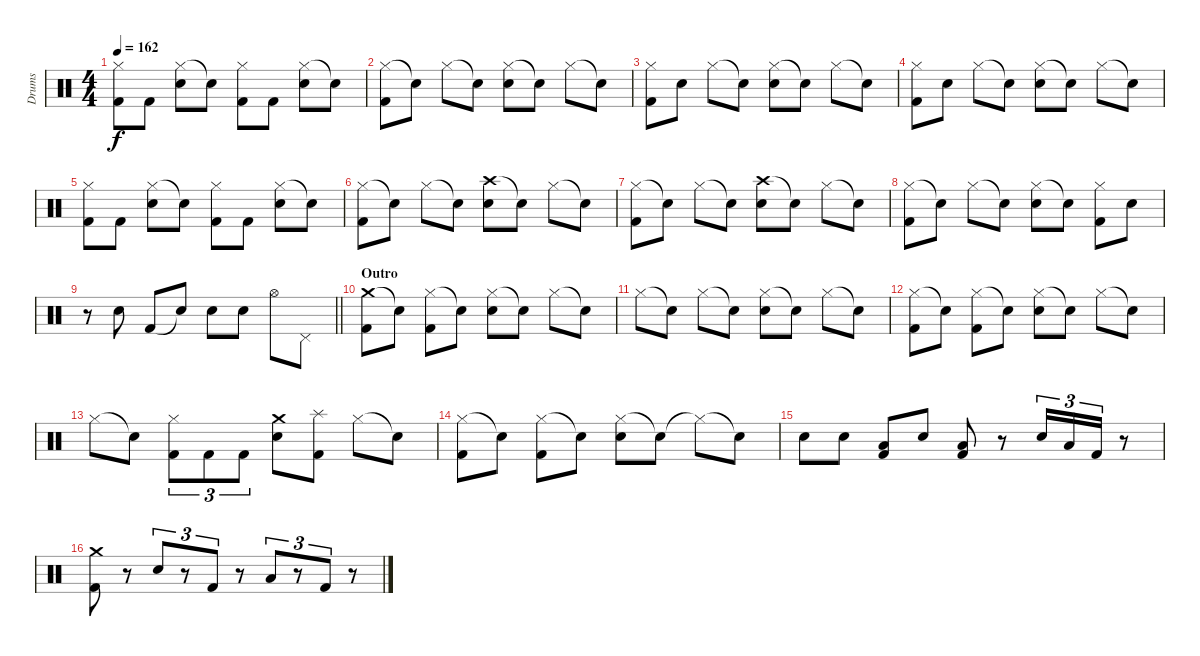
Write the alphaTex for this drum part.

\track ("Drums" "Drums") {instrument percussion}
\staff {score}
\articulation defaults
\ts (4 4)
\tempo 162
\clef neutral
\ks c
("Hi-Hat (closed)" "Kick (hit) 2").8{dy f} "Kick (hit) 2".8 ("Hi-Hat (closed)" "Snare (hit) 2").8 "Snare (hit)"{t}.8 ("Hi-Hat (closed)" "Kick (hit) 2").8 "Kick (hit) 2".8 ("Hi-Hat (closed)" "Snare (hit) 2").8 "Snare (hit)"{t}.8 |
("Hi-Hat (closed)" "Kick (hit) 2").8 "Snare (hit)"{t}.8 "Hi-Hat (closed)".8 "Snare (hit)"{t}.8 ("Hi-Hat (closed)" "Snare (hit) 2").8 "Snare (hit)"{t}.8 "Hi-Hat (closed)".8 "Snare (hit)"{t}.8 |
("Hi-Hat (closed)" "Kick (hit) 2").8 "Snare (hit) 2".8 "Hi-Hat (closed)".8 "Snare (hit)"{t}.8 ("Hi-Hat (closed)" "Snare (hit) 2").8 "Snare (hit)"{t}.8 "Hi-Hat (closed)".8 "Snare (hit)"{t}.8 |
("Hi-Hat (closed)" "Kick (hit) 2").8 "Snare (hit) 2".8 "Hi-Hat (closed)".8 "Snare (hit)"{t}.8 ("Hi-Hat (closed)" "Snare (hit) 2").8 "Snare (hit)"{t}.8 "Hi-Hat (closed)".8 "Snare (hit)"{t}.8 |
("Hi-Hat (closed)" "Kick (hit) 2").8 "Kick (hit) 2".8 ("Hi-Hat (closed)" "Snare (hit) 2").8 "Snare (hit)"{t}.8 ("Hi-Hat (closed)" "Kick (hit) 2").8 "Kick (hit) 2".8 ("Hi-Hat (closed)" "Snare (hit) 2").8 "Snare (hit)"{t}.8 |
("Hi-Hat (closed)" "Kick (hit) 2").8 "Snare (hit)"{t}.8 "Hi-Hat (closed)".8 "Snare (hit)"{t}.8 ("Crash high (hit)" "Snare (hit) 2").8 "Snare (hit)"{t}.8 "Hi-Hat (closed)".8 "Snare (hit)"{t}.8 |
("Hi-Hat (closed)" "Kick (hit) 2").8 "Snare (hit)"{t}.8 "Hi-Hat (closed)".8 "Snare (hit)"{t}.8 ("Crash high (hit)" "Snare (hit) 2").8 "Snare (hit)"{t}.8 "Hi-Hat (closed)".8 "Snare (hit)"{t}.8 |
("Hi-Hat (closed)" "Kick (hit) 2").8 "Snare (hit)"{t}.8 "Hi-Hat (closed)".8 "Snare (hit)"{t}.8 ("Hi-Hat (closed)" "Snare (hit) 2").8 "Snare (hit)"{t}.8 ("Hi-Hat (closed)" "Kick (hit) 2").8 "Snare (hit) 2".8 |
\barLineRight lightlight
r.8 "Snare (hit) 2".8 "Kick (hit) 2".8 "Snare (hit)"{t}.8 "Snare (hit) 2".8 "Snare (hit) 2".8 "Hi-Hat (open)".8 "Pedal Hi-Hat (hit)".8 |
\section ("" "Outro")
("Crash medium (hit)" "Kick (hit) 2").8 "Snare (hit)"{t}.8 ("Hi-Hat (closed)" "Kick (hit) 2").8 "Snare (hit)"{t}.8 ("Hi-Hat (closed)" "Snare (hit) 2").8 "Snare (hit)"{t}.8 "Hi-Hat (closed)".8 "Snare (hit)"{t}.8 |
"Hi-Hat (closed)".8 "Snare (hit)"{t}.8 "Hi-Hat (closed)".8 "Snare (hit)"{t}.8 ("Hi-Hat (closed)" "Snare (hit) 2").8 "Snare (hit)"{t}.8 "Hi-Hat (closed)".8 "Snare (hit)"{t}.8 |
("Hi-Hat (closed)" "Kick (hit) 2").8 "Snare (hit)"{t}.8 ("Hi-Hat (closed)" "Kick (hit) 2").8 "Snare (hit)"{t}.8 ("Hi-Hat (closed)" "Snare (hit) 2").8 "Snare (hit)"{t}.8 "Hi-Hat (closed)".8 "Snare (hit)"{t}.8 |
"Hi-Hat (closed)".8 "Snare (hit)"{t}.8 ("Hi-Hat (closed)" "Kick (hit) 2").8{tu (3 2)} "Kick (hit) 2".8{tu (3 2)} "Kick (hit) 2".8{tu (3 2)} ("Crash medium (hit)" "Snare (hit) 2").8 ("Splash (hit)" "Kick (hit) 2").8 "Hi-Hat (closed)".8 "Snare (hit)"{t}.8 |
("Hi-Hat (closed)" "Kick (hit) 2").8 "Snare (hit)"{t}.8 ("Hi-Hat (closed)" "Kick (hit) 2").8 "Snare (hit)"{t}.8 ("Hi-Hat (closed)" "Snare (hit) 2").8 "Snare (hit)"{t}.8 "Hi-Hat (closed)"{t}.8 "Snare (hit)"{t}.8 |
"Snare (hit) 2".8 "Snare (hit) 2".8 ("Low Tom (hit)" "Kick (hit) 2").8 "Snare (hit) 2".8 ("Low Tom (hit)" "Kick (hit) 2").8 r.8 "Snare (hit) 2".16{tu (3 2)} "Low Tom (hit)".16{tu (3 2)} "Kick (hit) 2".16{tu (3 2)} r.8 |
("Crash medium (hit)" "Kick (hit) 2").8 r.8 "Snare (hit) 2".8{tu (3 2)} r.8{tu (3 2)} "Kick (hit) 2".8{tu (3 2)} r.8 "Low Tom (hit)".8{tu (3 2)} r.8{tu (3 2)} "Kick (hit) 2".8{tu (3 2)} r.8
